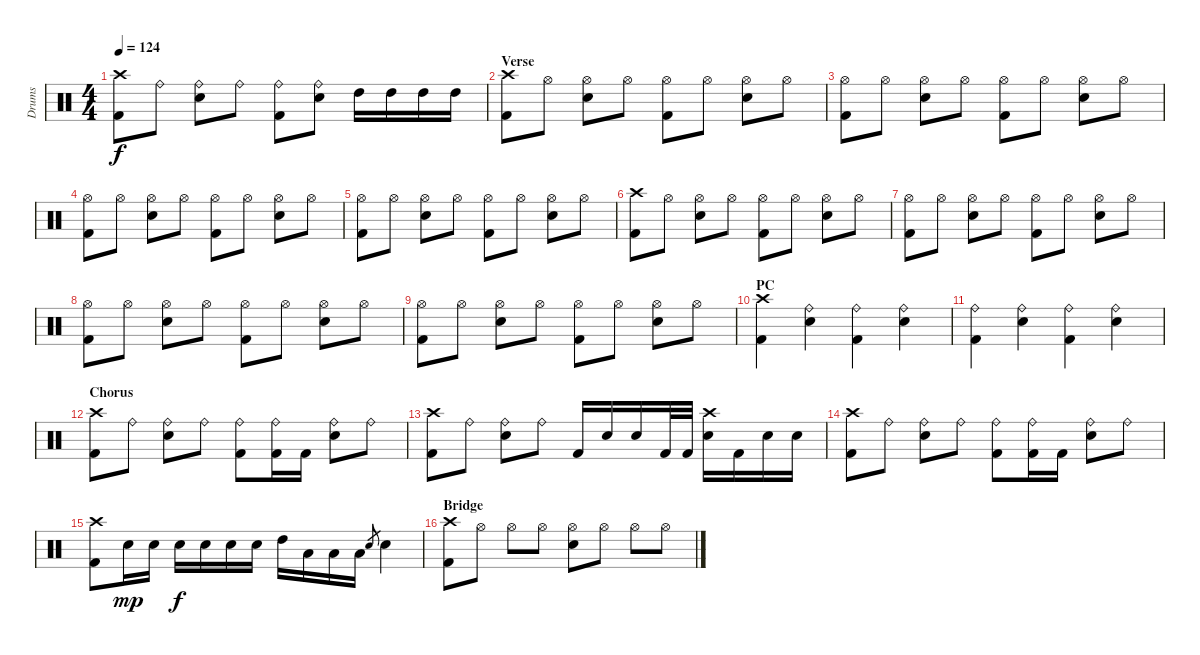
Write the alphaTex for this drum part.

\track ("Drums" "Drums") {instrument percussion}
\staff {score}
\articulation defaults
\ts (4 4)
\tempo 124
\clef neutral
\ks c
("Crash high (hit)" "Kick (hit) 2").8{dy f} "Ride (bell)".8 ("Ride (bell)" "Electric Snare (hit)").8 "Ride (bell)".8 ("Ride (bell)" "Kick (hit) 2").8 ("Ride (bell)" "Electric Snare (hit)").8 "High Tom (hit)".16 "High Tom (hit)".16 "High Tom (hit)".16 "High Tom (hit)".16 |
\section ("" "Verse")
("Crash high (hit)" "Kick (hit) 2").8 "Hi-Hat (open)".8 ("Hi-Hat (open)" "Electric Snare (hit)").8 "Hi-Hat (open)".8 ("Hi-Hat (open)" "Kick (hit) 2").8 "Hi-Hat (open)".8 ("Hi-Hat (open)" "Electric Snare (hit)").8 "Hi-Hat (open)".8 |
("Hi-Hat (open)" "Kick (hit) 2").8 "Hi-Hat (open)".8 ("Hi-Hat (open)" "Electric Snare (hit)").8 "Hi-Hat (open)".8 ("Hi-Hat (open)" "Kick (hit) 2").8 "Hi-Hat (open)".8 ("Hi-Hat (open)" "Electric Snare (hit)").8 "Hi-Hat (open)".8 |
("Hi-Hat (open)" "Kick (hit) 2").8 "Hi-Hat (open)".8 ("Hi-Hat (open)" "Electric Snare (hit)").8 "Hi-Hat (open)".8 ("Hi-Hat (open)" "Kick (hit) 2").8 "Hi-Hat (open)".8 ("Hi-Hat (open)" "Electric Snare (hit)").8 "Hi-Hat (open)".8 |
("Hi-Hat (open)" "Kick (hit) 2").8 "Hi-Hat (open)".8 ("Hi-Hat (open)" "Electric Snare (hit)").8 "Hi-Hat (open)".8 ("Hi-Hat (open)" "Kick (hit) 2").8 "Hi-Hat (open)".8 ("Hi-Hat (open)" "Electric Snare (hit)").8 "Hi-Hat (open)".8 |
("Crash high (hit)" "Kick (hit) 2").8 "Hi-Hat (open)".8 ("Hi-Hat (open)" "Electric Snare (hit)").8 "Hi-Hat (open)".8 ("Hi-Hat (open)" "Kick (hit) 2").8 "Hi-Hat (open)".8 ("Hi-Hat (open)" "Electric Snare (hit)").8 "Hi-Hat (open)".8 |
("Hi-Hat (open)" "Kick (hit) 2").8 "Hi-Hat (open)".8 ("Hi-Hat (open)" "Electric Snare (hit)").8 "Hi-Hat (open)".8 ("Hi-Hat (open)" "Kick (hit) 2").8 "Hi-Hat (open)".8 ("Hi-Hat (open)" "Electric Snare (hit)").8 "Hi-Hat (open)".8 |
("Hi-Hat (open)" "Kick (hit) 2").8 "Hi-Hat (open)".8 ("Hi-Hat (open)" "Electric Snare (hit)").8 "Hi-Hat (open)".8 ("Hi-Hat (open)" "Kick (hit) 2").8 "Hi-Hat (open)".8 ("Hi-Hat (open)" "Electric Snare (hit)").8 "Hi-Hat (open)".8 |
("Hi-Hat (open)" "Kick (hit) 2").8 "Hi-Hat (open)".8 ("Hi-Hat (open)" "Electric Snare (hit)").8 "Hi-Hat (open)".8 ("Hi-Hat (open)" "Kick (hit) 2").8 "Hi-Hat (open)".8 ("Hi-Hat (open)" "Electric Snare (hit)").8 "Hi-Hat (open)".8 |
\section ("" "PC")
("Crash high (hit)" "Kick (hit) 2").4 ("Ride (bell)" "Electric Snare (hit)").4 ("Ride (bell)" "Kick (hit) 2").4 ("Ride (bell)" "Electric Snare (hit)").4 |
("Ride (bell)" "Kick (hit) 2").4 ("Ride (bell)" "Electric Snare (hit)").4 ("Ride (bell)" "Kick (hit) 2").4 ("Ride (bell)" "Electric Snare (hit)").4 |
\section ("" "Chorus")
("Crash high (hit)" "Kick (hit) 2").8 "Ride (bell)".8 ("Ride (bell)" "Electric Snare (hit)").8 "Ride (bell)".8 ("Ride (bell)" "Kick (hit) 2").8 ("Ride (bell)" "Kick (hit) 2").16 "Kick (hit) 2".16 ("Ride (bell)" "Electric Snare (hit)").8 "Ride (bell)".8 |
("Crash high (hit)" "Kick (hit) 2").8 "Ride (bell)".8 ("Ride (bell)" "Electric Snare (hit)").8 "Ride (bell)".8 "Kick (hit) 2".16 "Electric Snare (hit)".16 "Electric Snare (hit)".16 "Kick (hit) 2".32 "Kick (hit) 2".32 ("Crash high (hit)" "Electric Snare (hit)").16 "Kick (hit) 2".16 "Electric Snare (hit)".16 "Electric Snare (hit)".16 |
("Crash high (hit)" "Kick (hit) 2").8 "Ride (bell)".8 ("Ride (bell)" "Electric Snare (hit)").8 "Ride (bell)".8 ("Ride (bell)" "Kick (hit) 2").8 ("Ride (bell)" "Kick (hit) 2").16 "Kick (hit) 2".16 ("Ride (bell)" "Electric Snare (hit)").8 "Ride (bell)".8 |
("Crash high (hit)" "Kick (hit) 2").8 "Electric Snare (hit)".16{dy mp} "Electric Snare (hit)".16 "Electric Snare (hit)".16{dy f} "Electric Snare (hit)".16 "Electric Snare (hit)".16 "Electric Snare (hit)".16 "High Tom (hit)".16 "Low Tom (hit)".16 "Low Tom (hit)".16 "Low Tom (hit)".16 "Electric Snare (hit)".8{gr} "Electric Snare (hit)".4 |
\section ("" "Bridge")
("Crash high (hit)" "Kick (hit) 2").8 "Hi-Hat (open)".8 "Hi-Hat (open)".8 "Hi-Hat (open)".8 ("Hi-Hat (open)" "Electric Snare (hit)").8 "Hi-Hat (open)".8 "Hi-Hat (open)".8 "Hi-Hat (open)".8
